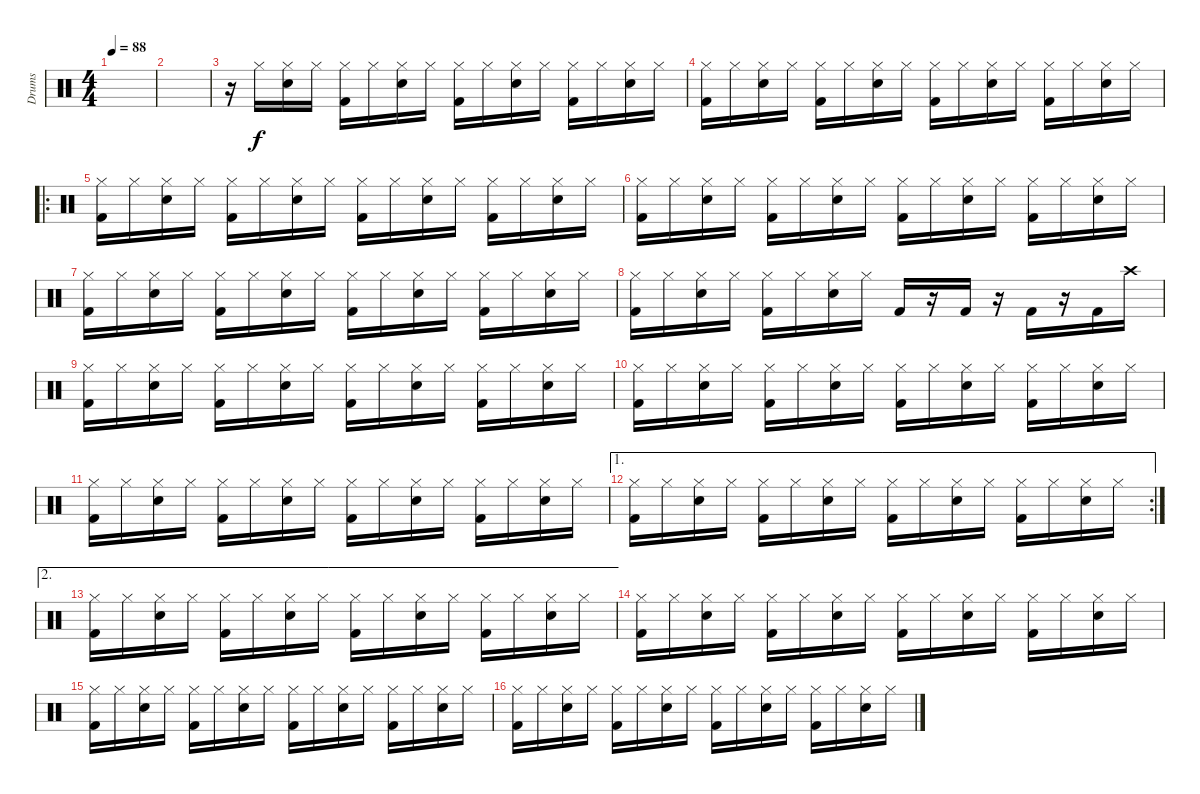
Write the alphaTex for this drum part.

\track ("Drums" "Drums") {instrument percussion}
\staff {score}
\articulation defaults
\ts (4 4)
\tempo 88
\clef neutral
\ks c
|
|
r.16 "Hi-Hat (closed)".16 ("Hi-Hat (closed)" "Electric Snare (hit)").16 "Hi-Hat (closed)".16 ("Hi-Hat (closed)" "Kick (hit) 2").16 "Hi-Hat (closed)".16 ("Hi-Hat (closed)" "Electric Snare (hit)").16 "Hi-Hat (closed)".16 ("Hi-Hat (closed)" "Kick (hit) 2").16 "Hi-Hat (closed)".16 ("Hi-Hat (closed)" "Electric Snare (hit)").16 "Hi-Hat (closed)".16 ("Hi-Hat (closed)" "Kick (hit) 2").16 "Hi-Hat (closed)".16 ("Hi-Hat (closed)" "Electric Snare (hit)").16 "Hi-Hat (closed)".16 |
("Hi-Hat (closed)" "Kick (hit) 2").16 "Hi-Hat (closed)".16 ("Hi-Hat (closed)" "Electric Snare (hit)").16 "Hi-Hat (closed)".16 ("Hi-Hat (closed)" "Kick (hit) 2").16 "Hi-Hat (closed)".16 ("Hi-Hat (closed)" "Electric Snare (hit)").16 "Hi-Hat (closed)".16 ("Hi-Hat (closed)" "Kick (hit) 2").16 "Hi-Hat (closed)".16 ("Hi-Hat (closed)" "Electric Snare (hit)").16 "Hi-Hat (closed)".16 ("Hi-Hat (closed)" "Kick (hit) 2").16 "Hi-Hat (closed)".16 ("Hi-Hat (closed)" "Electric Snare (hit)").16 "Hi-Hat (closed)".16 |
\ro
("Hi-Hat (closed)" "Kick (hit) 2").16 "Hi-Hat (closed)".16 ("Hi-Hat (closed)" "Electric Snare (hit)").16 "Hi-Hat (closed)".16 ("Hi-Hat (closed)" "Kick (hit) 2").16 "Hi-Hat (closed)".16 ("Hi-Hat (closed)" "Electric Snare (hit)").16 "Hi-Hat (closed)".16 ("Hi-Hat (closed)" "Kick (hit) 2").16 "Hi-Hat (closed)".16 ("Hi-Hat (closed)" "Electric Snare (hit)").16 "Hi-Hat (closed)".16 ("Hi-Hat (closed)" "Kick (hit) 2").16 "Hi-Hat (closed)".16 ("Hi-Hat (closed)" "Electric Snare (hit)").16 "Hi-Hat (closed)".16 |
("Hi-Hat (closed)" "Kick (hit) 2").16 "Hi-Hat (closed)".16 ("Hi-Hat (closed)" "Electric Snare (hit)").16 "Hi-Hat (closed)".16 ("Hi-Hat (closed)" "Kick (hit) 2").16 "Hi-Hat (closed)".16 ("Hi-Hat (closed)" "Electric Snare (hit)").16 "Hi-Hat (closed)".16 ("Hi-Hat (closed)" "Kick (hit) 2").16 "Hi-Hat (closed)".16 ("Hi-Hat (closed)" "Electric Snare (hit)").16 "Hi-Hat (closed)".16 ("Hi-Hat (closed)" "Kick (hit) 2").16 "Hi-Hat (closed)".16 ("Hi-Hat (closed)" "Electric Snare (hit)").16 "Hi-Hat (closed)".16 |
("Hi-Hat (closed)" "Kick (hit) 2").16 "Hi-Hat (closed)".16 ("Hi-Hat (closed)" "Electric Snare (hit)").16 "Hi-Hat (closed)".16 ("Hi-Hat (closed)" "Kick (hit) 2").16 "Hi-Hat (closed)".16 ("Hi-Hat (closed)" "Electric Snare (hit)").16 "Hi-Hat (closed)".16 ("Hi-Hat (closed)" "Kick (hit) 2").16 "Hi-Hat (closed)".16 ("Hi-Hat (closed)" "Electric Snare (hit)").16 "Hi-Hat (closed)".16 ("Hi-Hat (closed)" "Kick (hit) 2").16 "Hi-Hat (closed)".16 ("Hi-Hat (closed)" "Electric Snare (hit)").16 "Hi-Hat (closed)".16 |
("Hi-Hat (closed)" "Kick (hit) 2").16 "Hi-Hat (closed)".16 ("Hi-Hat (closed)" "Electric Snare (hit)").16 "Hi-Hat (closed)".16 ("Hi-Hat (closed)" "Kick (hit) 2").16 "Hi-Hat (closed)".16 ("Hi-Hat (closed)" "Electric Snare (hit)").16 "Hi-Hat (closed)".16 "Kick (hit) 2".16 r.16 "Kick (hit) 2".16 r.16 "Kick (hit) 2".16 r.16 "Kick (hit) 2".16 "Crash high (hit)".16 |
("Hi-Hat (closed)" "Kick (hit) 2").16 "Hi-Hat (closed)".16 ("Hi-Hat (closed)" "Electric Snare (hit)").16 "Hi-Hat (closed)".16 ("Hi-Hat (closed)" "Kick (hit) 2").16 "Hi-Hat (closed)".16 ("Hi-Hat (closed)" "Electric Snare (hit)").16 "Hi-Hat (closed)".16 ("Hi-Hat (closed)" "Kick (hit) 2").16 "Hi-Hat (closed)".16 ("Hi-Hat (closed)" "Electric Snare (hit)").16 "Hi-Hat (closed)".16 ("Hi-Hat (closed)" "Kick (hit) 2").16 "Hi-Hat (closed)".16 ("Hi-Hat (closed)" "Electric Snare (hit)").16 "Hi-Hat (closed)".16 |
("Hi-Hat (closed)" "Kick (hit) 2").16 "Hi-Hat (closed)".16 ("Hi-Hat (closed)" "Electric Snare (hit)").16 "Hi-Hat (closed)".16 ("Hi-Hat (closed)" "Kick (hit) 2").16 "Hi-Hat (closed)".16 ("Hi-Hat (closed)" "Electric Snare (hit)").16 "Hi-Hat (closed)".16 ("Hi-Hat (closed)" "Kick (hit) 2").16 "Hi-Hat (closed)".16 ("Hi-Hat (closed)" "Electric Snare (hit)").16 "Hi-Hat (closed)".16 ("Hi-Hat (closed)" "Kick (hit) 2").16 "Hi-Hat (closed)".16 ("Hi-Hat (closed)" "Electric Snare (hit)").16 "Hi-Hat (closed)".16 |
("Hi-Hat (closed)" "Kick (hit) 2").16 "Hi-Hat (closed)".16 ("Hi-Hat (closed)" "Electric Snare (hit)").16 "Hi-Hat (closed)".16 ("Hi-Hat (closed)" "Kick (hit) 2").16 "Hi-Hat (closed)".16 ("Hi-Hat (closed)" "Electric Snare (hit)").16 "Hi-Hat (closed)".16 ("Hi-Hat (closed)" "Kick (hit) 2").16 "Hi-Hat (closed)".16 ("Hi-Hat (closed)" "Electric Snare (hit)").16 "Hi-Hat (closed)".16 ("Hi-Hat (closed)" "Kick (hit) 2").16 "Hi-Hat (closed)".16 ("Hi-Hat (closed)" "Electric Snare (hit)").16 "Hi-Hat (closed)".16 |
\ae 1
\rc 2
("Hi-Hat (closed)" "Kick (hit) 2").16 "Hi-Hat (closed)".16 ("Hi-Hat (closed)" "Electric Snare (hit)").16 "Hi-Hat (closed)".16 ("Hi-Hat (closed)" "Kick (hit) 2").16 "Hi-Hat (closed)".16 ("Hi-Hat (closed)" "Electric Snare (hit)").16 "Hi-Hat (closed)".16 ("Hi-Hat (closed)" "Kick (hit) 2").16 "Hi-Hat (closed)".16 ("Hi-Hat (closed)" "Electric Snare (hit)").16 "Hi-Hat (closed)".16 ("Hi-Hat (closed)" "Kick (hit) 2").16 "Hi-Hat (closed)".16 ("Hi-Hat (closed)" "Electric Snare (hit)").16 "Hi-Hat (closed)".16 |
\ae 2
("Hi-Hat (closed)" "Kick (hit) 2").16 "Hi-Hat (closed)".16 ("Hi-Hat (closed)" "Electric Snare (hit)").16 "Hi-Hat (closed)".16 ("Hi-Hat (closed)" "Kick (hit) 2").16 "Hi-Hat (closed)".16 ("Hi-Hat (closed)" "Electric Snare (hit)").16 "Hi-Hat (closed)".16 ("Hi-Hat (closed)" "Kick (hit) 2").16 "Hi-Hat (closed)".16 ("Hi-Hat (closed)" "Electric Snare (hit)").16 "Hi-Hat (closed)".16 ("Hi-Hat (closed)" "Kick (hit) 2").16 "Hi-Hat (closed)".16 ("Hi-Hat (closed)" "Electric Snare (hit)").16 "Hi-Hat (closed)".16 |
("Hi-Hat (closed)" "Kick (hit) 2").16 "Hi-Hat (closed)".16 ("Hi-Hat (closed)" "Electric Snare (hit)").16 "Hi-Hat (closed)".16 ("Hi-Hat (closed)" "Kick (hit) 2").16 "Hi-Hat (closed)".16 ("Hi-Hat (closed)" "Electric Snare (hit)").16 "Hi-Hat (closed)".16 ("Hi-Hat (closed)" "Kick (hit) 2").16 "Hi-Hat (closed)".16 ("Hi-Hat (closed)" "Electric Snare (hit)").16 "Hi-Hat (closed)".16 ("Hi-Hat (closed)" "Kick (hit) 2").16 "Hi-Hat (closed)".16 ("Hi-Hat (closed)" "Electric Snare (hit)").16 "Hi-Hat (closed)".16 |
("Hi-Hat (closed)" "Kick (hit) 2").16 "Hi-Hat (closed)".16 ("Hi-Hat (closed)" "Electric Snare (hit)").16 "Hi-Hat (closed)".16 ("Hi-Hat (closed)" "Kick (hit) 2").16 "Hi-Hat (closed)".16 ("Hi-Hat (closed)" "Electric Snare (hit)").16 "Hi-Hat (closed)".16 ("Hi-Hat (closed)" "Kick (hit) 2").16 "Hi-Hat (closed)".16 ("Hi-Hat (closed)" "Electric Snare (hit)").16 "Hi-Hat (closed)".16 ("Hi-Hat (closed)" "Kick (hit) 2").16 "Hi-Hat (closed)".16 ("Hi-Hat (closed)" "Electric Snare (hit)").16 "Hi-Hat (closed)".16 |
("Hi-Hat (closed)" "Kick (hit) 2").16 "Hi-Hat (closed)".16 ("Hi-Hat (closed)" "Electric Snare (hit)").16 "Hi-Hat (closed)".16 ("Hi-Hat (closed)" "Kick (hit) 2").16 "Hi-Hat (closed)".16 ("Hi-Hat (closed)" "Electric Snare (hit)").16 "Hi-Hat (closed)".16 ("Hi-Hat (closed)" "Kick (hit) 2").16 "Hi-Hat (closed)".16 ("Hi-Hat (closed)" "Electric Snare (hit)").16 "Hi-Hat (closed)".16 ("Hi-Hat (closed)" "Kick (hit) 2").16 "Hi-Hat (closed)".16 ("Hi-Hat (closed)" "Electric Snare (hit)").16 "Hi-Hat (closed)".16
